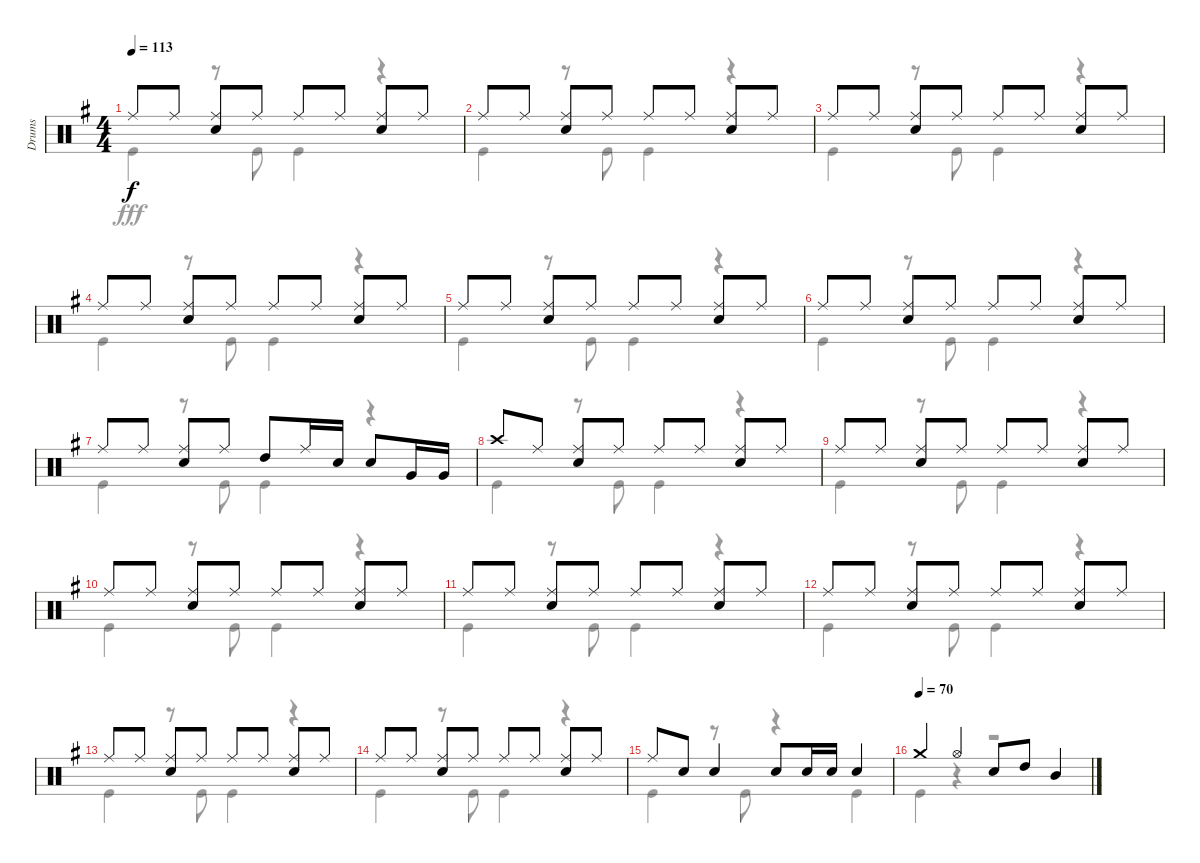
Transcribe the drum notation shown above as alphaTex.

\track ("Drums" "Drums") {instrument percussion}
\staff {score}
\articulation defaults
\voice
\ts (4 4)
\tempo 113
\clef neutral
\ks g "Ride (middle)".8{dy f} "Ride (middle)".8
("Ride (middle)" "Snare (hit) 2").8 "Ride (middle)".8 "Ride (middle)".8 "Ride (middle)".8 ("Ride (middle)" "Snare (hit) 2").8 "Ride (middle)".8 |
"Ride (middle)".8 "Ride (middle)".8 ("Ride (middle)" "Snare (hit) 2").8 "Ride (middle)".8 "Ride (middle)".8 "Ride (middle)".8 ("Ride (middle)" "Snare (hit) 2").8 "Ride (middle)".8 |
"Ride (middle)".8 "Ride (middle)".8 ("Ride (middle)" "Snare (hit) 2").8 "Ride (middle)".8 "Ride (middle)".8 "Ride (middle)".8 ("Ride (middle)" "Snare (hit) 2").8 "Ride (middle)".8 |
"Ride (middle)".8 "Ride (middle)".8 ("Ride (middle)" "Snare (hit) 2").8 "Ride (middle)".8 "Ride (middle)".8 "Ride (middle)".8 ("Ride (middle)" "Snare (hit) 2").8 "Ride (middle)".8 |
"Ride (middle)".8 "Ride (middle)".8 ("Ride (middle)" "Snare (hit) 2").8 "Ride (middle)".8 "Ride (middle)".8 "Ride (middle)".8 ("Ride (middle)" "Snare (hit) 2").8 "Ride (middle)".8 |
"Ride (middle)".8 "Ride (middle)".8 ("Ride (middle)" "Snare (hit) 2").8 "Ride (middle)".8 "Ride (middle)".8 "Ride (middle)".8 ("Ride (middle)" "Snare (hit) 2").8 "Ride (middle)".8 |
"Ride (middle)".8 "Ride (middle)".8 ("Ride (middle)" "Snare (hit) 2").8 "Ride (middle)".8 "High Tom (hit)".8 "Ride (middle)".16 "Snare (hit) 2".16 "Snare (hit) 2".8 "Very Low Tom (hit)".16 "Very Low Tom (hit)".16 |
"Crash high (hit)".8 "Ride (middle)".8 ("Ride (middle)" "Snare (hit) 2").8 "Ride (middle)".8 "Ride (middle)".8 "Ride (middle)".8 ("Ride (middle)" "Snare (hit) 2").8 "Ride (middle)".8 |
"Ride (middle)".8 "Ride (middle)".8 ("Ride (middle)" "Snare (hit) 2").8 "Ride (middle)".8 "Ride (middle)".8 "Ride (middle)".8 ("Ride (middle)" "Snare (hit) 2").8 "Ride (middle)".8 |
"Ride (middle)".8 "Ride (middle)".8 ("Ride (middle)" "Snare (hit) 2").8 "Ride (middle)".8 "Ride (middle)".8 "Ride (middle)".8 ("Ride (middle)" "Snare (hit) 2").8 "Ride (middle)".8 |
"Ride (middle)".8 "Ride (middle)".8 ("Ride (middle)" "Snare (hit) 2").8 "Ride (middle)".8 "Ride (middle)".8 "Ride (middle)".8 ("Ride (middle)" "Snare (hit) 2").8 "Ride (middle)".8 |
"Ride (middle)".8 "Ride (middle)".8 ("Ride (middle)" "Snare (hit) 2").8 "Ride (middle)".8 "Ride (middle)".8 "Ride (middle)".8 ("Ride (middle)" "Snare (hit) 2").8 "Ride (middle)".8 |
"Ride (middle)".8 "Ride (middle)".8 ("Ride (middle)" "Snare (hit) 2").8 "Ride (middle)".8 "Ride (middle)".8 "Ride (middle)".8 ("Ride (middle)" "Snare (hit) 2").8 "Ride (middle)".8 |
"Ride (middle)".8 "Ride (middle)".8 ("Ride (middle)" "Snare (hit) 2").8 "Ride (middle)".8 "Ride (middle)".8 "Ride (middle)".8 ("Ride (middle)" "Snare (hit) 2").8 "Ride (middle)".8 |
"Ride (middle)".8 "Snare (hit) 2".8 "Snare (hit) 2".4 "Snare (hit) 2".8 "Snare (hit) 2".16 "Snare (hit) 2".16 "Snare (hit) 2".4 |
\tempo (70)
"Crash medium (hit)".4 "Hi-Hat (open)".4 "Snare (hit) 2".8 "High Tom (hit)".8 "Mid Tom (hit)".4
\voice
\clef neutral
\ottava regular
\simile none
\ks g "Kick (hit)".4{dy fff}
r.8 "Kick (hit)".8 "Kick (hit)".4 r.4 |
"Kick (hit)".4 r.8 "Kick (hit)".8 "Kick (hit)".4 r.4 |
"Kick (hit)".4 r.8 "Kick (hit)".8 "Kick (hit)".4 r.4 |
"Kick (hit)".4 r.8 "Kick (hit)".8 "Kick (hit)".4 r.4 |
"Kick (hit)".4 r.8 "Kick (hit)".8 "Kick (hit)".4 r.4 |
"Kick (hit)".4 r.8 "Kick (hit)".8 "Kick (hit)".4 r.4 |
"Kick (hit)".4 r.8 "Kick (hit)".8 "Kick (hit)".4 r.4 |
"Kick (hit)".4 r.8 "Kick (hit)".8 "Kick (hit)".4 r.4 |
"Kick (hit)".4 r.8 "Kick (hit)".8 "Kick (hit)".4 r.4 |
"Kick (hit)".4 r.8 "Kick (hit)".8 "Kick (hit)".4 r.4 |
"Kick (hit)".4 r.8 "Kick (hit)".8 "Kick (hit)".4 r.4 |
"Kick (hit)".4 r.8 "Kick (hit)".8 "Kick (hit)".4 r.4 |
"Kick (hit)".4 r.8 "Kick (hit)".8 "Kick (hit)".4 r.4 |
"Kick (hit)".4 r.8 "Kick (hit)".8 "Kick (hit)".4 r.4 |
"Kick (hit)".4 r.8 "Kick (hit)".8 r.4 "Kick (hit)".4 |
"Kick (hit)".4 r.4 r.2
